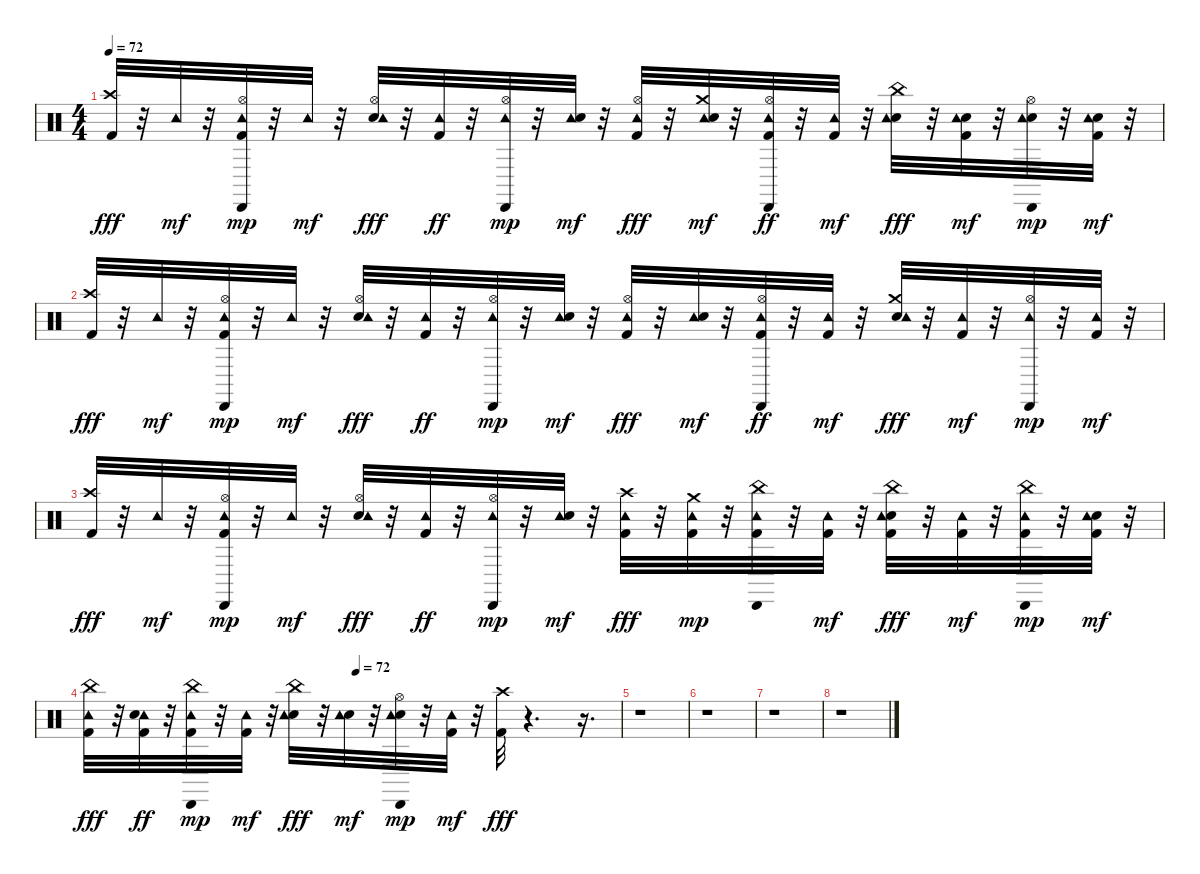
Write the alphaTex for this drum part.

\track "" {instrument percussion}
\staff {score}
\articulation defaults
\ts (4 4)
\tempo 72
\clef neutral
\ks c
("Kick (hit) 2" "Crash high (hit)").32{dy fff} r.32 "Tambourine (hit)".32{dy mf} r.32 ("Kick (hit) 2" "Hi-Hat (open)" "Cabasa (hit)" "Tambourine (hit)").32{dy mp} r.32 "Tambourine (hit)".32{dy mf} r.32 ("Electric Snare (hit)" "Hi-Hat (open)" "Tambourine (hit)").32{dy fff} r.32 ("Tambourine (hit)" "Kick (hit) 2").32{dy ff} r.32 ("Hi-Hat (open)" "Cabasa (hit)" "Tambourine (hit)").32{dy mp} r.32 ("Tambourine (hit)" "Electric Snare (hit)").32{dy mf} r.32 ("Kick (hit) 2" "Hi-Hat (open)" "Tambourine (hit)").32{dy fff} r.32 ("Crash medium (hit)" "Tambourine (hit)" "Electric Snare (hit)").32{dy mf} r.32 ("Hi-Hat (open)" "Cabasa (hit)" "Tambourine (hit)" "Kick (hit) 2").32{dy ff} r.32 ("Kick (hit) 2" "Tambourine (hit)").32{dy mf} r.32 ("Electric Snare (hit)" "China (hit)" "Tambourine (hit)").32{dy fff} r.32 ("Kick (hit) 2" "Electric Snare (hit)" "Tambourine (hit)").32{dy mf} r.32 ("Electric Snare (hit)" "Hi-Hat (open)" "Cabasa (hit)" "Tambourine (hit)").32{dy mp} r.32 ("Electric Snare (hit)" "Kick (hit) 2" "Tambourine (hit)").32{dy mf} r.32 |
("Kick (hit) 2" "Crash high (hit)").32{dy fff} r.32 "Tambourine (hit)".32{dy mf} r.32 ("Kick (hit) 2" "Hi-Hat (open)" "Cabasa (hit)" "Tambourine (hit)").32{dy mp} r.32 "Tambourine (hit)".32{dy mf} r.32 ("Electric Snare (hit)" "Hi-Hat (open)" "Tambourine (hit)").32{dy fff} r.32 ("Tambourine (hit)" "Kick (hit) 2").32{dy ff} r.32 ("Hi-Hat (open)" "Cabasa (hit)" "Tambourine (hit)").32{dy mp} r.32 ("Tambourine (hit)" "Electric Snare (hit)").32{dy mf} r.32 ("Kick (hit) 2" "Hi-Hat (open)" "Tambourine (hit)").32{dy fff} r.32 ("Tambourine (hit)" "Electric Snare (hit)").32{dy mf} r.32 ("Hi-Hat (open)" "Cabasa (hit)" "Tambourine (hit)" "Kick (hit) 2").32{dy ff} r.32 ("Kick (hit) 2" "Tambourine (hit)").32{dy mf} r.32 ("Electric Snare (hit)" "Crash medium (hit)" "Tambourine (hit)").32{dy fff} r.32 ("Kick (hit) 2" "Tambourine (hit)").32{dy mf} r.32 ("Hi-Hat (open)" "Cabasa (hit)" "Tambourine (hit)").32{dy mp} r.32 ("Kick (hit) 2" "Tambourine (hit)").32{dy mf} r.32 |
("Kick (hit) 2" "Crash high (hit)").32{dy fff} r.32 "Tambourine (hit)".32{dy mf} r.32 ("Kick (hit) 2" "Hi-Hat (open)" "Cabasa (hit)" "Tambourine (hit)").32{dy mp} r.32 "Tambourine (hit)".32{dy mf} r.32 ("Electric Snare (hit)" "Hi-Hat (open)" "Tambourine (hit)").32{dy fff} r.32 ("Tambourine (hit)" "Kick (hit) 2").32{dy ff} r.32 ("Hi-Hat (open)" "Cabasa (hit)" "Tambourine (hit)").32{dy mp} r.32 ("Tambourine (hit)" "Electric Snare (hit)").32{dy mf} r.32 ("Kick (hit) 2" "Crash high (hit)" "Tambourine (hit)").32{dy fff} r.32 ("Kick (hit) 2" "Crash medium (hit)" "Tambourine (hit)").32{dy mp} r.32 ("Kick (hit) 2" "China (hit)" "Cabasa (hit)" "Tambourine (hit)").32 r.32 ("Kick (hit) 2" "Tambourine (hit)").32{dy mf} r.32 ("Kick (hit) 2" "Electric Snare (hit)" "China (hit)" "Tambourine (hit)").32{dy fff} r.32 ("Kick (hit) 2" "Tambourine (hit)").32{dy mf} r.32 ("Kick (hit) 2" "China (hit)" "Cabasa (hit)" "Tambourine (hit)").32{dy mp} r.32 ("Kick (hit) 2" "Electric Snare (hit)" "Tambourine (hit)").32{dy mf} r.32 |
\tempo (72 0.5)
("Kick (hit) 2" "China (hit)" "Tambourine (hit)").32{dy fff} r.32 ("Tambourine (hit)" "Kick (hit) 2" "Electric Snare (hit)").32{dy ff} r.32 ("Kick (hit) 2" "China (hit)" "Tambourine (hit)" "Cabasa (hit)").32{dy mp} r.32 ("Kick (hit) 2" "Tambourine (hit)").32{dy mf} r.32 ("Electric Snare (hit)" "China (hit)" "Tambourine (hit)").32{dy fff} r.32 ("Electric Snare (hit)" "Tambourine (hit)").32{dy mf} r.32 ("Electric Snare (hit)" "Hi-Hat (open)" "Cabasa (hit)" "Tambourine (hit)").32{dy mp} r.32 ("Kick (hit) 2" "Tambourine (hit)").32{dy mf} r.32 ("Kick (hit) 2" "Crash high (hit)").32{dy fff} r.4{d} r.16{d} |
r.1 |
r.1 |
r.1 |
r.1
